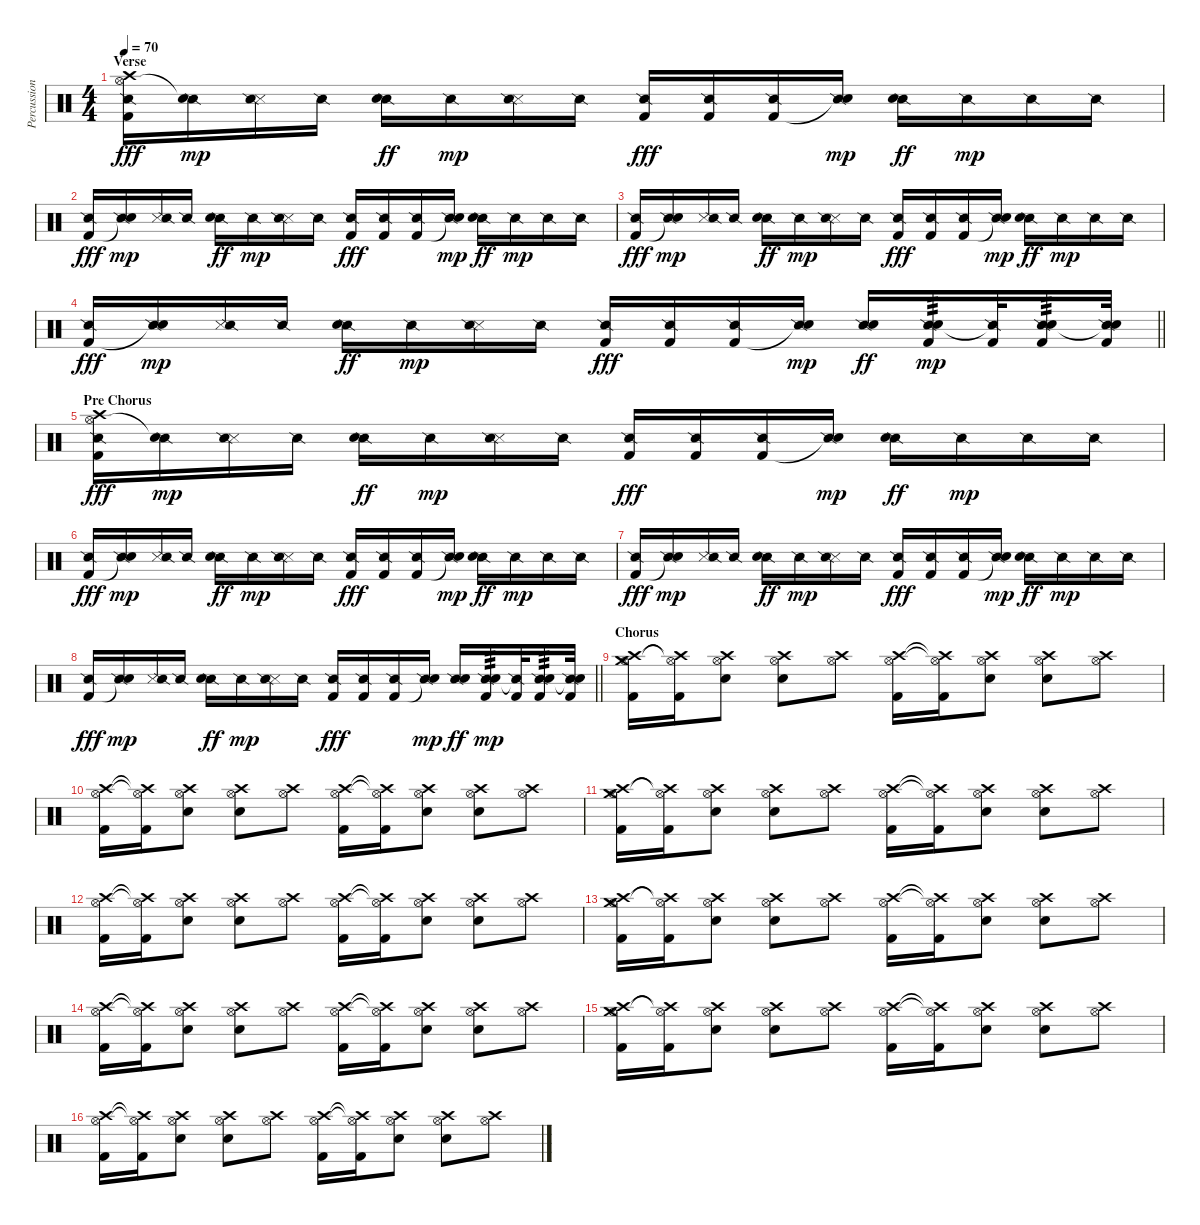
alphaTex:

\track ("Percussion" "Percussion") {instrument percussion}
\staff {score}
\articulation defaults
\ts (4 4)
\section ("" "Verse")
\tempo 70
\clef neutral
\ks c
("Crash high (hit)" "Hi-Hat (open)" "Snare (side stick) 2" "Kick (hit) 2").16{dy fff} ("Snare (side stick) 2" "Snare (hit)"{t}).16{dy mp} ("Snare (side stick) 3" "Snare (side stick) 2").16 "Snare (side stick) 2".16 ("Snare (side stick) 2" "Electric Snare (hit)").16{dy ff} "Snare (side stick) 2".16{dy mp} ("Snare (side stick) 3" "Snare (side stick) 2").16 "Snare (side stick) 2".16 ("Snare (side stick) 2" "Kick (hit) 2").16{dy fff} ("Snare (side stick) 2" "Kick (hit) 2").16 ("Snare (side stick) 2" "Kick (hit) 2").16 ("Snare (side stick) 2" "Snare (hit)"{t}).16{dy mp} ("Snare (side stick) 2" "Electric Snare (hit)").16{dy ff} "Snare (side stick) 2".16{dy mp} "Snare (side stick) 2".16 "Snare (side stick) 2".16 |
("Snare (side stick) 2" "Kick (hit) 2").16{dy fff} ("Snare (side stick) 2" "Snare (hit)"{t}).16{dy mp} ("Snare (side stick) 3" "Snare (side stick) 2").16 "Snare (side stick) 2".16 ("Snare (side stick) 2" "Electric Snare (hit)").16{dy ff} "Snare (side stick) 2".16{dy mp} ("Snare (side stick) 3" "Snare (side stick) 2").16 "Snare (side stick) 2".16 ("Snare (side stick) 2" "Kick (hit) 2").16{dy fff} ("Snare (side stick) 2" "Kick (hit) 2").16 ("Snare (side stick) 2" "Kick (hit) 2").16 ("Snare (side stick) 2" "Snare (hit)"{t}).16{dy mp} ("Snare (side stick) 2" "Electric Snare (hit)").16{dy ff} "Snare (side stick) 2".16{dy mp} "Snare (side stick) 2".16 "Snare (side stick) 2".16 |
("Snare (side stick) 2" "Kick (hit) 2").16{dy fff} ("Snare (side stick) 2" "Snare (hit)"{t}).16{dy mp} ("Snare (side stick) 3" "Snare (side stick) 2").16 "Snare (side stick) 2".16 ("Snare (side stick) 2" "Electric Snare (hit)").16{dy ff} "Snare (side stick) 2".16{dy mp} ("Snare (side stick) 3" "Snare (side stick) 2").16 "Snare (side stick) 2".16 ("Snare (side stick) 2" "Kick (hit) 2").16{dy fff} ("Snare (side stick) 2" "Kick (hit) 2").16 ("Snare (side stick) 2" "Kick (hit) 2").16 ("Snare (side stick) 2" "Snare (hit)"{t}).16{dy mp} ("Snare (side stick) 2" "Electric Snare (hit)").16{dy ff} "Snare (side stick) 2".16{dy mp} "Snare (side stick) 2".16 "Snare (side stick) 2".16 |
\barLineRight lightlight
("Snare (side stick) 2" "Kick (hit) 2").16{dy fff} ("Snare (side stick) 2" "Snare (hit)"{t}).16{dy mp} ("Snare (side stick) 3" "Snare (side stick) 2").16 "Snare (side stick) 2".16 ("Snare (side stick) 2" "Electric Snare (hit)").16{dy ff} "Snare (side stick) 2".16{dy mp} ("Snare (side stick) 3" "Snare (side stick) 2").16 "Snare (side stick) 2".16 ("Snare (side stick) 2" "Kick (hit) 2").16{dy fff} ("Snare (side stick) 2" "Kick (hit) 2").16 ("Snare (side stick) 2" "Kick (hit) 2").16 ("Snare (side stick) 2" "Snare (hit)"{t}).16{dy mp} ("Snare (side stick) 2" "Electric Snare (hit)").16{dy ff} ("Snare (side stick) 2" "Electric Snare (hit)" "Kick (hit) 2").16{tp 3 dy mp} ("Snare (side stick) 2"{t} "Kick (hit) 2").32 ("Snare (side stick) 2" "Electric Snare (hit)" "Kick (hit) 2").16{tp 3} ("Snare (side stick) 2"{t} "Electric Snare (hit)" "Kick (hit) 2").32 |
\section ("" "Pre Chorus")
("Crash high (hit)" "Hi-Hat (open)" "Snare (side stick) 2" "Kick (hit) 2").16{dy fff} ("Snare (side stick) 2" "Snare (hit)"{t}).16{dy mp} ("Snare (side stick) 3" "Snare (side stick) 2").16 "Snare (side stick) 2".16 ("Snare (side stick) 2" "Electric Snare (hit)").16{dy ff} "Snare (side stick) 2".16{dy mp} ("Snare (side stick) 3" "Snare (side stick) 2").16 "Snare (side stick) 2".16 ("Snare (side stick) 2" "Kick (hit) 2").16{dy fff} ("Snare (side stick) 2" "Kick (hit) 2").16 ("Snare (side stick) 2" "Kick (hit) 2").16 ("Snare (side stick) 2" "Snare (hit)"{t}).16{dy mp} ("Snare (side stick) 2" "Electric Snare (hit)").16{dy ff} "Snare (side stick) 2".16{dy mp} "Snare (side stick) 2".16 "Snare (side stick) 2".16 |
("Snare (side stick) 2" "Kick (hit) 2").16{dy fff} ("Snare (side stick) 2" "Snare (hit)"{t}).16{dy mp} ("Snare (side stick) 3" "Snare (side stick) 2").16 "Snare (side stick) 2".16 ("Snare (side stick) 2" "Electric Snare (hit)").16{dy ff} "Snare (side stick) 2".16{dy mp} ("Snare (side stick) 3" "Snare (side stick) 2").16 "Snare (side stick) 2".16 ("Snare (side stick) 2" "Kick (hit) 2").16{dy fff} ("Snare (side stick) 2" "Kick (hit) 2").16 ("Snare (side stick) 2" "Kick (hit) 2").16 ("Snare (side stick) 2" "Snare (hit)"{t}).16{dy mp} ("Snare (side stick) 2" "Electric Snare (hit)").16{dy ff} "Snare (side stick) 2".16{dy mp} "Snare (side stick) 2".16 "Snare (side stick) 2".16 |
("Snare (side stick) 2" "Kick (hit) 2").16{dy fff} ("Snare (side stick) 2" "Snare (hit)"{t}).16{dy mp} ("Snare (side stick) 3" "Snare (side stick) 2").16 "Snare (side stick) 2".16 ("Snare (side stick) 2" "Electric Snare (hit)").16{dy ff} "Snare (side stick) 2".16{dy mp} ("Snare (side stick) 3" "Snare (side stick) 2").16 "Snare (side stick) 2".16 ("Snare (side stick) 2" "Kick (hit) 2").16{dy fff} ("Snare (side stick) 2" "Kick (hit) 2").16 ("Snare (side stick) 2" "Kick (hit) 2").16 ("Snare (side stick) 2" "Snare (hit)"{t}).16{dy mp} ("Snare (side stick) 2" "Electric Snare (hit)").16{dy ff} "Snare (side stick) 2".16{dy mp} "Snare (side stick) 2".16 "Snare (side stick) 2".16 |
\barLineRight lightlight
("Snare (side stick) 2" "Kick (hit) 2").16{dy fff} ("Snare (side stick) 2" "Snare (hit)"{t}).16{dy mp} ("Snare (side stick) 3" "Snare (side stick) 2").16 "Snare (side stick) 2".16 ("Snare (side stick) 2" "Electric Snare (hit)").16{dy ff} "Snare (side stick) 2".16{dy mp} ("Snare (side stick) 3" "Snare (side stick) 2").16 "Snare (side stick) 2".16 ("Snare (side stick) 2" "Kick (hit) 2").16{dy fff} ("Snare (side stick) 2" "Kick (hit) 2").16 ("Snare (side stick) 2" "Kick (hit) 2").16 ("Snare (side stick) 2" "Snare (hit)"{t}).16{dy mp} ("Snare (side stick) 2" "Electric Snare (hit)").16{dy ff} ("Snare (side stick) 2" "Electric Snare (hit)" "Kick (hit) 2").16{tp 3 dy mp} ("Snare (side stick) 2"{t} "Kick (hit) 2").32 ("Snare (side stick) 2" "Electric Snare (hit)" "Kick (hit) 2").16{tp 3} ("Snare (side stick) 2"{t} "Electric Snare (hit)" "Kick (hit) 2").32 |
\section ("" "Chorus")
("Crash medium (hit)" "Crash high (hit)" "Hi-Hat (open)" "Kick (hit) 2").16 ("Crash high (hit)"{t} "Hi-Hat (open)"{t} "Kick (hit) 2").16 ("Crash high (hit)" "Hi-Hat (open)" "Electric Snare (hit)").8 ("Crash high (hit)" "Hi-Hat (open)" "Electric Snare (hit)").8 ("Crash high (hit)" "Hi-Hat (open)").8 ("Crash high (hit)" "Hi-Hat (open)" "Kick (hit) 2").16 ("Crash high (hit)"{t} "Hi-Hat (open)"{t} "Kick (hit) 2").16 ("Crash high (hit)" "Hi-Hat (open)" "Electric Snare (hit)").8 ("Crash high (hit)" "Hi-Hat (open)" "Electric Snare (hit)").8 ("Crash high (hit)" "Hi-Hat (open)").8 |
("Crash high (hit)" "Hi-Hat (open)" "Kick (hit) 2").16 ("Crash high (hit)"{t} "Hi-Hat (open)"{t} "Kick (hit) 2").16 ("Crash high (hit)" "Hi-Hat (open)" "Electric Snare (hit)").8 ("Crash high (hit)" "Hi-Hat (open)" "Electric Snare (hit)").8 ("Crash high (hit)" "Hi-Hat (open)").8 ("Crash high (hit)" "Hi-Hat (open)" "Kick (hit) 2").16 ("Crash high (hit)"{t} "Hi-Hat (open)"{t} "Kick (hit) 2").16 ("Crash high (hit)" "Hi-Hat (open)" "Electric Snare (hit)").8 ("Crash high (hit)" "Hi-Hat (open)" "Electric Snare (hit)").8 ("Crash high (hit)" "Hi-Hat (open)").8 |
("Crash medium (hit)" "Crash high (hit)" "Hi-Hat (open)" "Kick (hit) 2").16 ("Crash high (hit)"{t} "Hi-Hat (open)"{t} "Kick (hit) 2").16 ("Crash high (hit)" "Hi-Hat (open)" "Electric Snare (hit)").8 ("Crash high (hit)" "Hi-Hat (open)" "Electric Snare (hit)").8 ("Crash high (hit)" "Hi-Hat (open)").8 ("Crash high (hit)" "Hi-Hat (open)" "Kick (hit) 2").16 ("Crash high (hit)"{t} "Hi-Hat (open)"{t} "Kick (hit) 2").16 ("Crash high (hit)" "Hi-Hat (open)" "Electric Snare (hit)").8 ("Crash high (hit)" "Hi-Hat (open)" "Electric Snare (hit)").8 ("Crash high (hit)" "Hi-Hat (open)").8 |
("Crash high (hit)" "Hi-Hat (open)" "Kick (hit) 2").16 ("Crash high (hit)"{t} "Hi-Hat (open)"{t} "Kick (hit) 2").16 ("Crash high (hit)" "Hi-Hat (open)" "Electric Snare (hit)").8 ("Crash high (hit)" "Hi-Hat (open)" "Electric Snare (hit)").8 ("Crash high (hit)" "Hi-Hat (open)").8 ("Crash high (hit)" "Hi-Hat (open)" "Kick (hit) 2").16 ("Crash high (hit)"{t} "Hi-Hat (open)"{t} "Kick (hit) 2").16 ("Crash high (hit)" "Hi-Hat (open)" "Electric Snare (hit)").8 ("Crash high (hit)" "Hi-Hat (open)" "Electric Snare (hit)").8 ("Crash high (hit)" "Hi-Hat (open)").8 |
("Crash medium (hit)" "Crash high (hit)" "Hi-Hat (open)" "Kick (hit) 2").16 ("Crash high (hit)"{t} "Hi-Hat (open)"{t} "Kick (hit) 2").16 ("Crash high (hit)" "Hi-Hat (open)" "Electric Snare (hit)").8 ("Crash high (hit)" "Hi-Hat (open)" "Electric Snare (hit)").8 ("Crash high (hit)" "Hi-Hat (open)").8 ("Crash high (hit)" "Hi-Hat (open)" "Kick (hit) 2").16 ("Crash high (hit)"{t} "Hi-Hat (open)"{t} "Kick (hit) 2").16 ("Crash high (hit)" "Hi-Hat (open)" "Electric Snare (hit)").8 ("Crash high (hit)" "Hi-Hat (open)" "Electric Snare (hit)").8 ("Crash high (hit)" "Hi-Hat (open)").8 |
("Crash high (hit)" "Hi-Hat (open)" "Kick (hit) 2").16 ("Crash high (hit)"{t} "Hi-Hat (open)"{t} "Kick (hit) 2").16 ("Crash high (hit)" "Hi-Hat (open)" "Electric Snare (hit)").8 ("Crash high (hit)" "Hi-Hat (open)" "Electric Snare (hit)").8 ("Crash high (hit)" "Hi-Hat (open)").8 ("Crash high (hit)" "Hi-Hat (open)" "Kick (hit) 2").16 ("Crash high (hit)"{t} "Hi-Hat (open)"{t} "Kick (hit) 2").16 ("Crash high (hit)" "Hi-Hat (open)" "Electric Snare (hit)").8 ("Crash high (hit)" "Hi-Hat (open)" "Electric Snare (hit)").8 ("Crash high (hit)" "Hi-Hat (open)").8 |
("Crash medium (hit)" "Crash high (hit)" "Hi-Hat (open)" "Kick (hit) 2").16 ("Crash high (hit)"{t} "Hi-Hat (open)"{t} "Kick (hit) 2").16 ("Crash high (hit)" "Hi-Hat (open)" "Electric Snare (hit)").8 ("Crash high (hit)" "Hi-Hat (open)" "Electric Snare (hit)").8 ("Crash high (hit)" "Hi-Hat (open)").8 ("Crash high (hit)" "Hi-Hat (open)" "Kick (hit) 2").16 ("Crash high (hit)"{t} "Hi-Hat (open)"{t} "Kick (hit) 2").16 ("Crash high (hit)" "Hi-Hat (open)" "Electric Snare (hit)").8 ("Crash high (hit)" "Hi-Hat (open)" "Electric Snare (hit)").8 ("Crash high (hit)" "Hi-Hat (open)").8 |
("Crash high (hit)" "Hi-Hat (open)" "Kick (hit) 2").16 ("Crash high (hit)"{t} "Hi-Hat (open)"{t} "Kick (hit) 2").16 ("Crash high (hit)" "Hi-Hat (open)" "Electric Snare (hit)").8 ("Crash high (hit)" "Hi-Hat (open)" "Electric Snare (hit)").8 ("Crash high (hit)" "Hi-Hat (open)").8 ("Crash high (hit)" "Hi-Hat (open)" "Kick (hit) 2").16 ("Crash high (hit)"{t} "Hi-Hat (open)"{t} "Kick (hit) 2").16 ("Crash high (hit)" "Hi-Hat (open)" "Electric Snare (hit)").8 ("Crash high (hit)" "Hi-Hat (open)" "Electric Snare (hit)").8 ("Crash high (hit)" "Hi-Hat (open)").8
